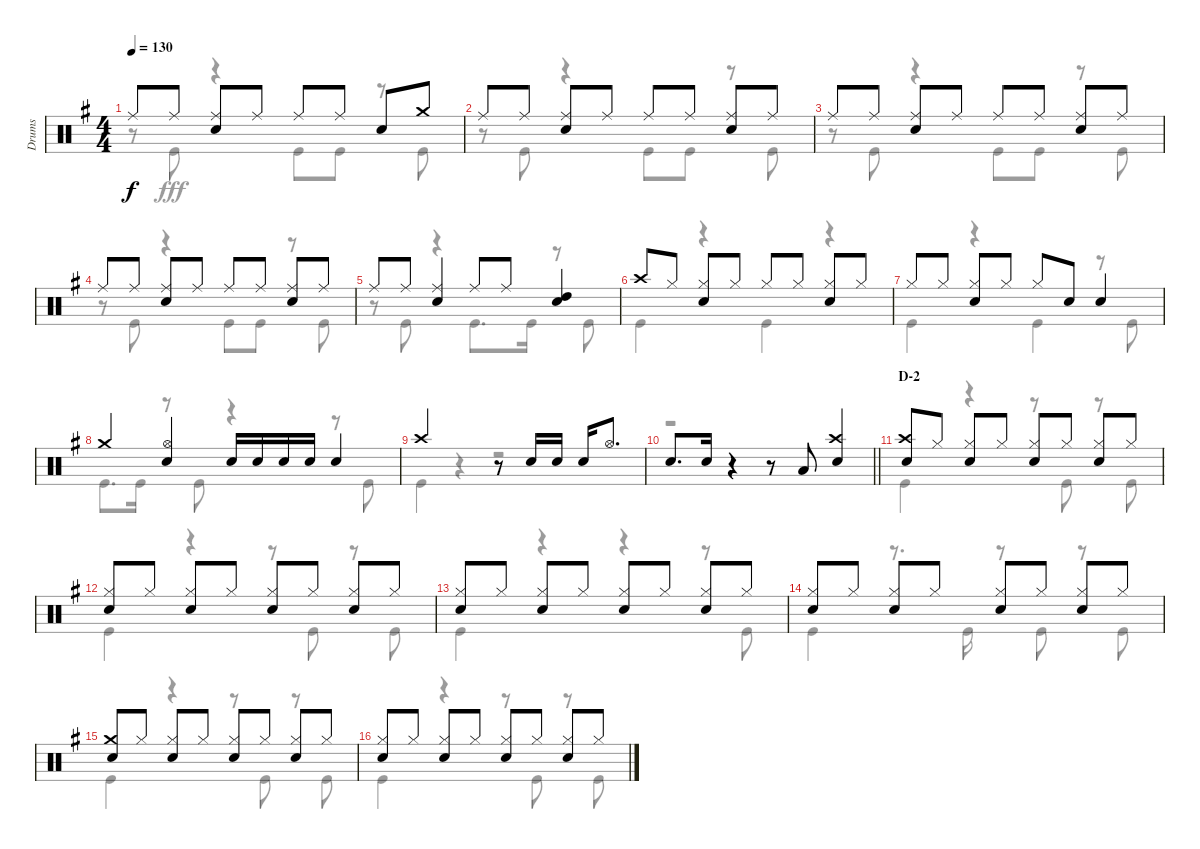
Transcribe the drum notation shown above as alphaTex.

\track ("Drums" "Drums") {instrument percussion}
\staff {score}
\articulation defaults
\voice
\ts (4 4)
\tempo 130
\clef neutral
\ks g "Ride (middle)".8{dy f} "Ride (middle)".8
("Ride (middle)" "Snare (hit) 2").8 "Ride (middle)".8 "Ride (middle)".8 "Ride (middle)".8 "Snare (hit) 2".8 "Crash medium (hit)".8 |
"Ride (middle)".8 "Ride (middle)".8 ("Ride (middle)" "Snare (hit) 2").8 "Ride (middle)".8 "Ride (middle)".8 "Ride (middle)".8 ("Ride (middle)" "Snare (hit) 2").8 "Ride (middle)".8 |
"Ride (middle)".8 "Ride (middle)".8 ("Ride (middle)" "Snare (hit) 2").8 "Ride (middle)".8 "Ride (middle)".8 "Ride (middle)".8 ("Ride (middle)" "Snare (hit) 2").8 "Ride (middle)".8 |
"Ride (middle)".8 "Ride (middle)".8 ("Ride (middle)" "Snare (hit) 2").8 "Ride (middle)".8 "Ride (middle)".8 "Ride (middle)".8 ("Ride (middle)" "Snare (hit) 2").8 "Ride (middle)".8 |
"Ride (middle)".8 "Ride (middle)".8 ("Ride (middle)" "Snare (hit) 2").4 "Ride (middle)".8 "Ride (middle)".8 ("High Tom (hit)" "Snare (hit) 2").4 |
"Crash high (hit)".8 "Hi-Hat (closed)".8 ("Hi-Hat (closed)" "Snare (hit) 2").8 "Hi-Hat (closed)".8 "Hi-Hat (closed)".8 "Hi-Hat (closed)".8 ("Hi-Hat (closed)" "Snare (hit) 2").8 "Hi-Hat (closed)".8 |
"Hi-Hat (closed)".8 "Hi-Hat (closed)".8 ("Hi-Hat (closed)" "Snare (hit) 2").8 "Hi-Hat (closed)".8 "Hi-Hat (closed)".8 "Snare (hit) 2".8 "Snare (hit) 2".4 |
"Crash medium (hit)".4 ("Hi-Hat (open)" "Snare (hit) 2").4 "Snare (hit) 2".16 "Snare (hit) 2".16 "Snare (hit) 2".16 "Snare (hit) 2".16 "Snare (hit) 2".4 |
"Crash high (hit)".2 r.8 "Snare (hit) 2".16 "Snare (hit) 2".16 "Snare (hit) 2".16 "Hi-Hat (open)".8{d} |
\barLineRight lightlight "Snare (hit) 2".8{d} "Snare (hit) 2".16
r.4 r.8 "Low Tom (hit)".8 ("Crash high (hit)" "Snare (hit) 2").4 |
\section ("" "D-2")
("Crash high (hit)" "Snare (hit) 2").8 "Hi-Hat (closed)".8 ("Hi-Hat (closed)" "Snare (hit) 2").8 "Hi-Hat (closed)".8 ("Hi-Hat (closed)" "Snare (hit) 2").8 "Hi-Hat (closed)".8 ("Hi-Hat (closed)" "Snare (hit) 2").8 "Hi-Hat (closed)".8 |
("Hi-Hat (closed)" "Snare (hit) 2").8 "Hi-Hat (closed)".8 ("Hi-Hat (closed)" "Snare (hit) 2").8 "Hi-Hat (closed)".8 ("Hi-Hat (closed)" "Snare (hit) 2").8 "Hi-Hat (closed)".8 ("Hi-Hat (closed)" "Snare (hit) 2").8 "Hi-Hat (closed)".8 |
("Hi-Hat (closed)" "Snare (hit) 2").8 "Hi-Hat (closed)".8 ("Hi-Hat (closed)" "Snare (hit) 2").8 "Hi-Hat (closed)".8 ("Hi-Hat (closed)" "Snare (hit) 2").8 "Hi-Hat (closed)".8 ("Hi-Hat (closed)" "Snare (hit) 2").8 "Hi-Hat (closed)".8 |
("Hi-Hat (closed)" "Snare (hit) 2").8 "Hi-Hat (closed)".8 ("Hi-Hat (closed)" "Snare (hit) 2").8 "Hi-Hat (closed)".8 ("Hi-Hat (closed)" "Snare (hit) 2").8 "Hi-Hat (closed)".8 ("Hi-Hat (closed)" "Snare (hit) 2").8 "Hi-Hat (closed)".8 |
("Crash medium (hit)" "Snare (hit) 2").8 "Hi-Hat (closed)".8 ("Hi-Hat (closed)" "Snare (hit) 2").8 "Hi-Hat (closed)".8 ("Hi-Hat (closed)" "Snare (hit) 2").8 "Hi-Hat (closed)".8 ("Hi-Hat (closed)" "Snare (hit) 2").8 "Hi-Hat (closed)".8 |
("Hi-Hat (closed)" "Snare (hit) 2").8 "Hi-Hat (closed)".8 ("Hi-Hat (closed)" "Snare (hit) 2").8 "Hi-Hat (closed)".8 ("Hi-Hat (closed)" "Snare (hit) 2").8 "Hi-Hat (closed)".8 ("Hi-Hat (closed)" "Snare (hit) 2").8 "Hi-Hat (closed)".8
\voice
\clef neutral
\ottava regular
\simile none
\ks g
r.8{dy fff} "Kick (hit)".8 r.4 "Kick (hit)".8 "Kick (hit)".8 r.8 "Kick (hit)".8 |
r.8 "Kick (hit)".8 r.4 "Kick (hit)".8 "Kick (hit)".8 r.8 "Kick (hit)".8 |
r.8 "Kick (hit)".8 r.4 "Kick (hit)".8 "Kick (hit)".8 r.8 "Kick (hit)".8 |
r.8 "Kick (hit)".8 r.4 "Kick (hit)".8 "Kick (hit)".8 r.8 "Kick (hit)".8 |
r.8 "Kick (hit)".8 r.4 "Kick (hit)".8{d} "Kick (hit)".16 r.8 "Kick (hit)".8 |
"Kick (hit)".4 r.4 "Kick (hit)".4 r.4 |
"Kick (hit)".4 r.4 "Kick (hit)".4 r.8 "Kick (hit)".8 |
"Kick (hit)".8{d} "Kick (hit)".16 r.8 "Kick (hit)".8 r.4 r.8 "Kick (hit)".8 |
"Kick (hit)".4 r.4 r.2 |
\barLineRight lightlight
r.1 |
"Kick (hit)".4 r.4 r.8 "Kick (hit)".8 r.8 "Kick (hit)".8 |
"Kick (hit)".4 r.4 r.8 "Kick (hit)".8 r.8 "Kick (hit)".8 |
"Kick (hit)".4 r.4 r.4 r.8 "Kick (hit)".8 |
"Kick (hit)".4 r.8{d} "Kick (hit)".16 r.8 "Kick (hit)".8 r.8 "Kick (hit)".8 |
"Kick (hit)".4 r.4 r.8 "Kick (hit)".8 r.8 "Kick (hit)".8 |
"Kick (hit)".4 r.4 r.8 "Kick (hit)".8 r.8 "Kick (hit)".8
